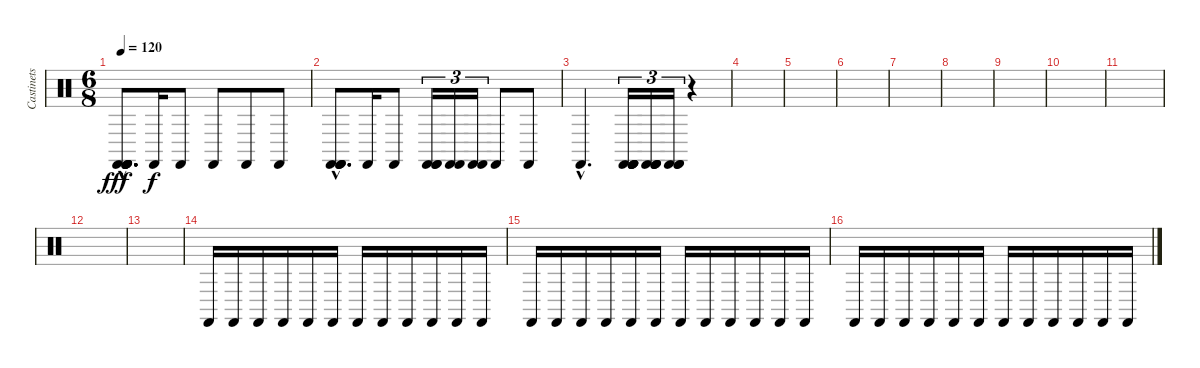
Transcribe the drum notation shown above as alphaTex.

\track ("Castinets" "Castinets") {instrument percussion}
\staff {score}
\articulation defaults
\ts (6 8)
\tempo 120
\clef neutral
\ks c
("Castanets (hit)"{hac} "Castanets (hit)"{hac} "Castanets (hit)"{hac} "Castanets (hit)"{hac} "Castanets (hit)"{hac} "Castanets (hit)"{hac}).8{d dy fff} "Castanets (hit)".16{dy f} "Castanets (hit)".8 "Castanets (hit)".8 "Castanets (hit)".8 "Castanets (hit)".8 |
("Castanets (hit)"{hac} "Castanets (hit)"{hac} "Castanets (hit)"{hac} "Castanets (hit)"{hac}).8{d} "Castanets (hit)".16 "Castanets (hit)".8 ("Castanets (hit)" "Castanets (hit)" "Castanets (hit)").16{tu (3 2)} ("Castanets (hit)" "Castanets (hit)").16{tu (3 2)} ("Castanets (hit)" "Castanets (hit)").16{tu (3 2)} "Castanets (hit)".8 "Castanets (hit)".8 |
"Castanets (hit)"{hac}.4{d} ("Castanets (hit)" "Castanets (hit)" "Castanets (hit)" "Castanets (hit)" "Castanets (hit)").16{tu (3 2)} ("Castanets (hit)" "Castanets (hit)" "Castanets (hit)" "Castanets (hit)").16{tu (3 2)} ("Castanets (hit)" "Castanets (hit)" "Castanets (hit)").16{tu (3 2)} r.4 |
|
|
|
|
|
|
|
|
|
|
"Castanets (hit)".16 "Castanets (hit)".16 "Castanets (hit)".16 "Castanets (hit)".16 "Castanets (hit)".16 "Castanets (hit)".16 "Castanets (hit)".16 "Castanets (hit)".16 "Castanets (hit)".16 "Castanets (hit)".16 "Castanets (hit)".16 "Castanets (hit)".16 |
"Castanets (hit)".16 "Castanets (hit)".16 "Castanets (hit)".16 "Castanets (hit)".16 "Castanets (hit)".16 "Castanets (hit)".16 "Castanets (hit)".16 "Castanets (hit)".16 "Castanets (hit)".16 "Castanets (hit)".16 "Castanets (hit)".16 "Castanets (hit)".16 |
"Castanets (hit)".16 "Castanets (hit)".16 "Castanets (hit)".16 "Castanets (hit)".16 "Castanets (hit)".16 "Castanets (hit)".16 "Castanets (hit)".16 "Castanets (hit)".16 "Castanets (hit)".16 "Castanets (hit)".16 "Castanets (hit)".16 "Castanets (hit)".16
